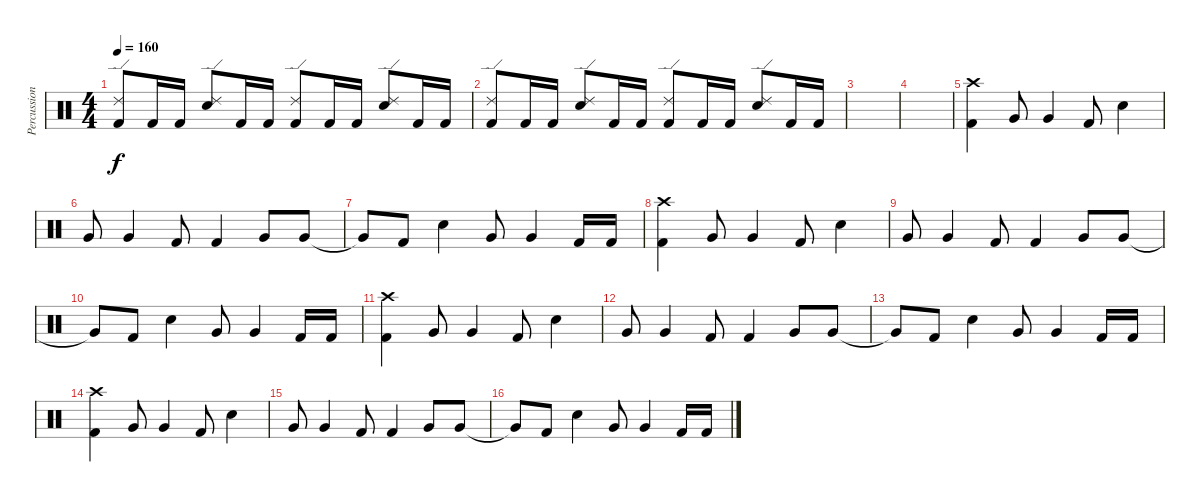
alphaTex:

\track ("Percussion" "Percussion") {instrument percussion}
\staff {score}
\articulation defaults
\ts (4 4)
\tempo 160
\clef neutral
\ks c
("Kick (hit) 2" "Ride (edge) 2").8{dy f} "Kick (hit) 2".16 "Kick (hit) 2".16 ("Electric Snare (hit)" "Ride (edge) 2").8 "Kick (hit) 2".16 "Kick (hit) 2".16 ("Kick (hit) 2" "Ride (edge) 2").8 "Kick (hit) 2".16 "Kick (hit) 2".16 ("Electric Snare (hit)" "Ride (edge) 2").8 "Kick (hit) 2".16 "Kick (hit) 2".16 |
("Kick (hit) 2" "Ride (edge) 2").8 "Kick (hit) 2".16 "Kick (hit) 2".16 ("Electric Snare (hit)" "Ride (edge) 2").8 "Kick (hit) 2".16 "Kick (hit) 2".16 ("Kick (hit) 2" "Ride (edge) 2").8 "Kick (hit) 2".16 "Kick (hit) 2".16 ("Electric Snare (hit)" "Ride (edge) 2").8 "Kick (hit) 2".16 "Kick (hit) 2".16 |
|
|
("Kick (hit) 2" "Crash high (hit)").4 "Very Low Tom (hit)".8 "Very Low Tom (hit)".4 "Kick (hit) 2".8 "Electric Snare (hit)".4 |
"Very Low Tom (hit)".8 "Very Low Tom (hit)".4 "Kick (hit) 2".8 "Kick (hit) 2".4 "Very Low Tom (hit)".8 "Very Low Tom (hit)".8 |
"Very Low Tom (hit)"{t}.8 "Kick (hit) 2".8 "Electric Snare (hit)".4 "Very Low Tom (hit)".8 "Very Low Tom (hit)".4 "Kick (hit) 2".16 "Kick (hit) 2".16 |
("Kick (hit) 2" "Crash high (hit)").4 "Very Low Tom (hit)".8 "Very Low Tom (hit)".4 "Kick (hit) 2".8 "Electric Snare (hit)".4 |
"Very Low Tom (hit)".8 "Very Low Tom (hit)".4 "Kick (hit) 2".8 "Kick (hit) 2".4 "Very Low Tom (hit)".8 "Very Low Tom (hit)".8 |
"Very Low Tom (hit)"{t}.8 "Kick (hit) 2".8 "Electric Snare (hit)".4 "Very Low Tom (hit)".8 "Very Low Tom (hit)".4 "Kick (hit) 2".16 "Kick (hit) 2".16 |
("Kick (hit) 2" "Crash high (hit)").4 "Very Low Tom (hit)".8 "Very Low Tom (hit)".4 "Kick (hit) 2".8 "Electric Snare (hit)".4 |
"Very Low Tom (hit)".8 "Very Low Tom (hit)".4 "Kick (hit) 2".8 "Kick (hit) 2".4 "Very Low Tom (hit)".8 "Very Low Tom (hit)".8 |
"Very Low Tom (hit)"{t}.8 "Kick (hit) 2".8 "Electric Snare (hit)".4 "Very Low Tom (hit)".8 "Very Low Tom (hit)".4 "Kick (hit) 2".16 "Kick (hit) 2".16 |
("Kick (hit) 2" "Crash high (hit)").4 "Very Low Tom (hit)".8 "Very Low Tom (hit)".4 "Kick (hit) 2".8 "Electric Snare (hit)".4 |
"Very Low Tom (hit)".8 "Very Low Tom (hit)".4 "Kick (hit) 2".8 "Kick (hit) 2".4 "Very Low Tom (hit)".8 "Very Low Tom (hit)".8 |
"Very Low Tom (hit)"{t}.8 "Kick (hit) 2".8 "Electric Snare (hit)".4 "Very Low Tom (hit)".8 "Very Low Tom (hit)".4 "Kick (hit) 2".16 "Kick (hit) 2".16
